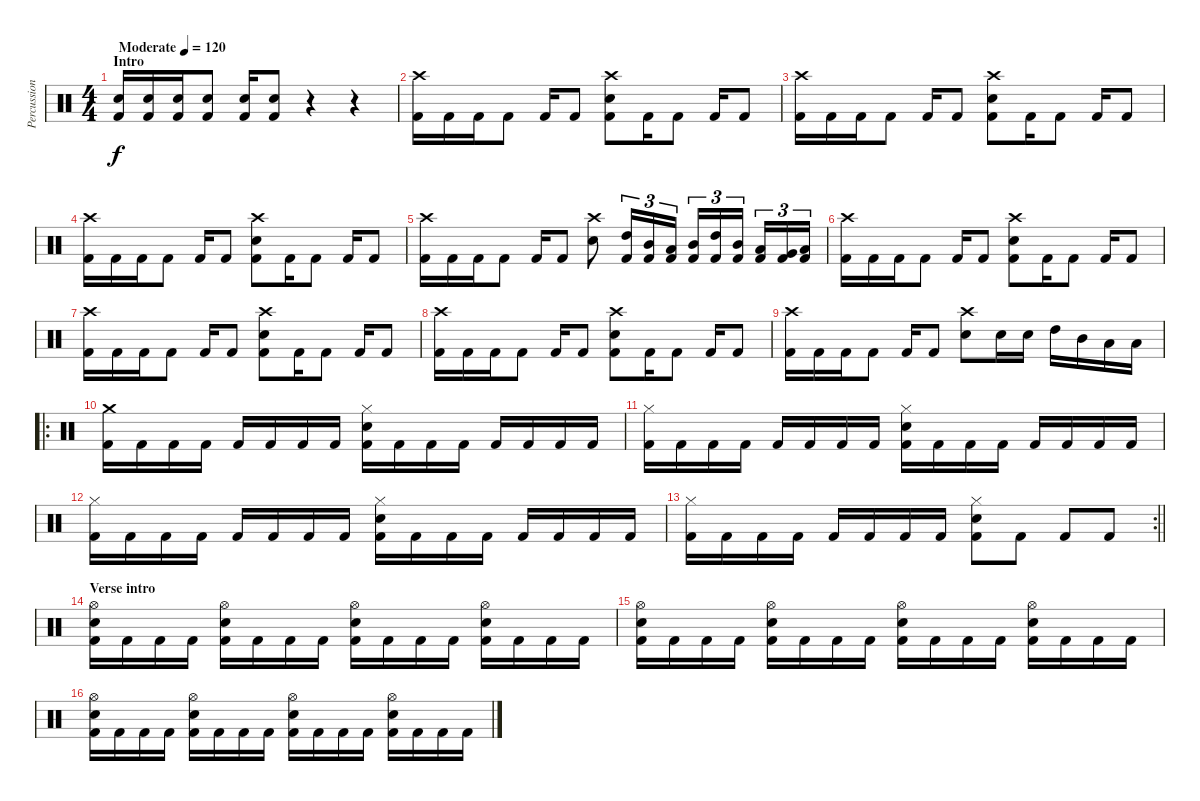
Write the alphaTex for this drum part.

\track ("Percussion" "Percussion") {instrument percussion}
\staff {score}
\articulation defaults
\ts (4 4)
\section ("" "Intro")
\tempo (120 "Moderate")
\clef neutral
\ks c
("Snare (hit) 2" "Kick (hit) 2").16{dy f} ("Snare (hit) 2" "Kick (hit) 2").16 ("Snare (hit) 2" "Kick (hit) 2").16 ("Snare (hit) 2" "Kick (hit) 2").8 ("Snare (hit) 2" "Kick (hit) 2").16 ("Snare (hit) 2" "Kick (hit) 2").8 r.4 r.4 |
("Crash high (hit)" "Kick (hit) 2").16 "Kick (hit) 2".16 "Kick (hit) 2".16 "Kick (hit) 2".8 "Kick (hit) 2".16 "Kick (hit) 2".8 ("Crash high (hit)" "Snare (hit) 2" "Kick (hit) 2").8 "Kick (hit) 2".16 "Kick (hit) 2".8 "Kick (hit) 2".16 "Kick (hit) 2".8 |
("Crash high (hit)" "Kick (hit) 2").16 "Kick (hit) 2".16 "Kick (hit) 2".16 "Kick (hit) 2".8 "Kick (hit) 2".16 "Kick (hit) 2".8 ("Crash high (hit)" "Snare (hit) 2" "Kick (hit) 2").8 "Kick (hit) 2".16 "Kick (hit) 2".8 "Kick (hit) 2".16 "Kick (hit) 2".8 |
("Crash high (hit)" "Kick (hit) 2").16 "Kick (hit) 2".16 "Kick (hit) 2".16 "Kick (hit) 2".8 "Kick (hit) 2".16 "Kick (hit) 2".8 ("Crash high (hit)" "Snare (hit) 2" "Kick (hit) 2").8 "Kick (hit) 2".16 "Kick (hit) 2".8 "Kick (hit) 2".16 "Kick (hit) 2".8 |
("Crash high (hit)" "Kick (hit) 2").16 "Kick (hit) 2".16 "Kick (hit) 2".16 "Kick (hit) 2".8 "Kick (hit) 2".16 "Kick (hit) 2".8 ("Crash high (hit)" "Snare (hit) 2").8 ("High Tom (hit)" "Kick (hit) 2").16{tu (3 2)} ("Mid Tom (hit)" "Kick (hit) 2").16{tu (3 2)} ("Low Tom (hit)" "Kick (hit) 2").16{tu (3 2)} ("Mid Tom (hit)" "Kick (hit) 2").16{tu (3 2)} ("High Tom (hit)" "Kick (hit) 2").16{tu (3 2)} ("Mid Tom (hit)" "Kick (hit) 2").16{tu (3 2) beam splitsecondary} ("Low Tom (hit)" "Kick (hit) 2").16{tu (3 2)} ("Very Low Tom (hit)" "Kick (hit) 2").16{tu (3 2)} ("Low Tom (hit)" "Kick (hit) 2").16{tu (3 2)} |
("Crash high (hit)" "Kick (hit) 2").16 "Kick (hit) 2".16 "Kick (hit) 2".16 "Kick (hit) 2".8 "Kick (hit) 2".16 "Kick (hit) 2".8 ("Crash high (hit)" "Snare (hit) 2" "Kick (hit) 2").8 "Kick (hit) 2".16 "Kick (hit) 2".8 "Kick (hit) 2".16 "Kick (hit) 2".8 |
("Crash high (hit)" "Kick (hit) 2").16 "Kick (hit) 2".16 "Kick (hit) 2".16 "Kick (hit) 2".8 "Kick (hit) 2".16 "Kick (hit) 2".8 ("Crash high (hit)" "Snare (hit) 2" "Kick (hit) 2").8 "Kick (hit) 2".16 "Kick (hit) 2".8 "Kick (hit) 2".16 "Kick (hit) 2".8 |
("Crash high (hit)" "Kick (hit) 2").16 "Kick (hit) 2".16 "Kick (hit) 2".16 "Kick (hit) 2".8 "Kick (hit) 2".16 "Kick (hit) 2".8 ("Crash high (hit)" "Snare (hit) 2" "Kick (hit) 2").8 "Kick (hit) 2".16 "Kick (hit) 2".8 "Kick (hit) 2".16 "Kick (hit) 2".8 |
("Crash high (hit)" "Kick (hit) 2").16 "Kick (hit) 2".16 "Kick (hit) 2".16 "Kick (hit) 2".8 "Kick (hit) 2".16 "Kick (hit) 2".8 ("Crash high (hit)" "Snare (hit) 2").8 "Snare (hit) 2".16 "Snare (hit) 2".16 "High Tom (hit)".16 "Mid Tom (hit)".16 "Low Tom (hit)".16 "Low Tom (hit)".16 |
\ro
("Crash medium (hit)" "Kick (hit) 2").16 "Kick (hit) 2".16 "Kick (hit) 2".16 "Kick (hit) 2".16 "Kick (hit) 2".16 "Kick (hit) 2".16 "Kick (hit) 2".16 "Kick (hit) 2".16 ("Hi-Hat (closed)" "Snare (hit) 2" "Kick (hit) 2").16 "Kick (hit) 2".16 "Kick (hit) 2".16 "Kick (hit) 2".16 "Kick (hit) 2".16 "Kick (hit) 2".16 "Kick (hit) 2".16 "Kick (hit) 2".16 |
("Hi-Hat (closed)" "Kick (hit) 2").16 "Kick (hit) 2".16 "Kick (hit) 2".16 "Kick (hit) 2".16 "Kick (hit) 2".16 "Kick (hit) 2".16 "Kick (hit) 2".16 "Kick (hit) 2".16 ("Hi-Hat (closed)" "Snare (hit) 2" "Kick (hit) 2").16 "Kick (hit) 2".16 "Kick (hit) 2".16 "Kick (hit) 2".16 "Kick (hit) 2".16 "Kick (hit) 2".16 "Kick (hit) 2".16 "Kick (hit) 2".16 |
("Hi-Hat (closed)" "Kick (hit) 2").16 "Kick (hit) 2".16 "Kick (hit) 2".16 "Kick (hit) 2".16 "Kick (hit) 2".16 "Kick (hit) 2".16 "Kick (hit) 2".16 "Kick (hit) 2".16 ("Hi-Hat (closed)" "Snare (hit) 2" "Kick (hit) 2").16 "Kick (hit) 2".16 "Kick (hit) 2".16 "Kick (hit) 2".16 "Kick (hit) 2".16 "Kick (hit) 2".16 "Kick (hit) 2".16 "Kick (hit) 2".16 |
\rc 2
\barLineRight lightlight
("Hi-Hat (closed)" "Kick (hit) 2").16 "Kick (hit) 2".16 "Kick (hit) 2".16 "Kick (hit) 2".16 "Kick (hit) 2".16 "Kick (hit) 2".16 "Kick (hit) 2".16 "Kick (hit) 2".16 ("Hi-Hat (closed)" "Snare (hit) 2" "Kick (hit) 2").8 "Kick (hit) 2".8 "Kick (hit) 2".8 "Kick (hit) 2".8 |
\section ("" "Verse intro")
("Hi-Hat (open)" "Snare (hit) 2" "Kick (hit) 2").16 "Kick (hit) 2".16 "Kick (hit) 2".16 "Kick (hit) 2".16 ("Hi-Hat (open)" "Snare (hit) 2" "Kick (hit) 2").16 "Kick (hit) 2".16 "Kick (hit) 2".16 "Kick (hit) 2".16 ("Hi-Hat (open)" "Snare (hit) 2" "Kick (hit) 2").16 "Kick (hit) 2".16 "Kick (hit) 2".16 "Kick (hit) 2".16 ("Hi-Hat (open)" "Snare (hit) 2" "Kick (hit) 2").16 "Kick (hit) 2".16 "Kick (hit) 2".16 "Kick (hit) 2".16 |
("Hi-Hat (open)" "Snare (hit) 2" "Kick (hit) 2").16 "Kick (hit) 2".16 "Kick (hit) 2".16 "Kick (hit) 2".16 ("Hi-Hat (open)" "Snare (hit) 2" "Kick (hit) 2").16 "Kick (hit) 2".16 "Kick (hit) 2".16 "Kick (hit) 2".16 ("Hi-Hat (open)" "Snare (hit) 2" "Kick (hit) 2").16 "Kick (hit) 2".16 "Kick (hit) 2".16 "Kick (hit) 2".16 ("Hi-Hat (open)" "Snare (hit) 2" "Kick (hit) 2").16 "Kick (hit) 2".16 "Kick (hit) 2".16 "Kick (hit) 2".16 |
("Hi-Hat (open)" "Snare (hit) 2" "Kick (hit) 2").16 "Kick (hit) 2".16 "Kick (hit) 2".16 "Kick (hit) 2".16 ("Hi-Hat (open)" "Snare (hit) 2" "Kick (hit) 2").16 "Kick (hit) 2".16 "Kick (hit) 2".16 "Kick (hit) 2".16 ("Hi-Hat (open)" "Snare (hit) 2" "Kick (hit) 2").16 "Kick (hit) 2".16 "Kick (hit) 2".16 "Kick (hit) 2".16 ("Hi-Hat (open)" "Snare (hit) 2" "Kick (hit) 2").16 "Kick (hit) 2".16 "Kick (hit) 2".16 "Kick (hit) 2".16
